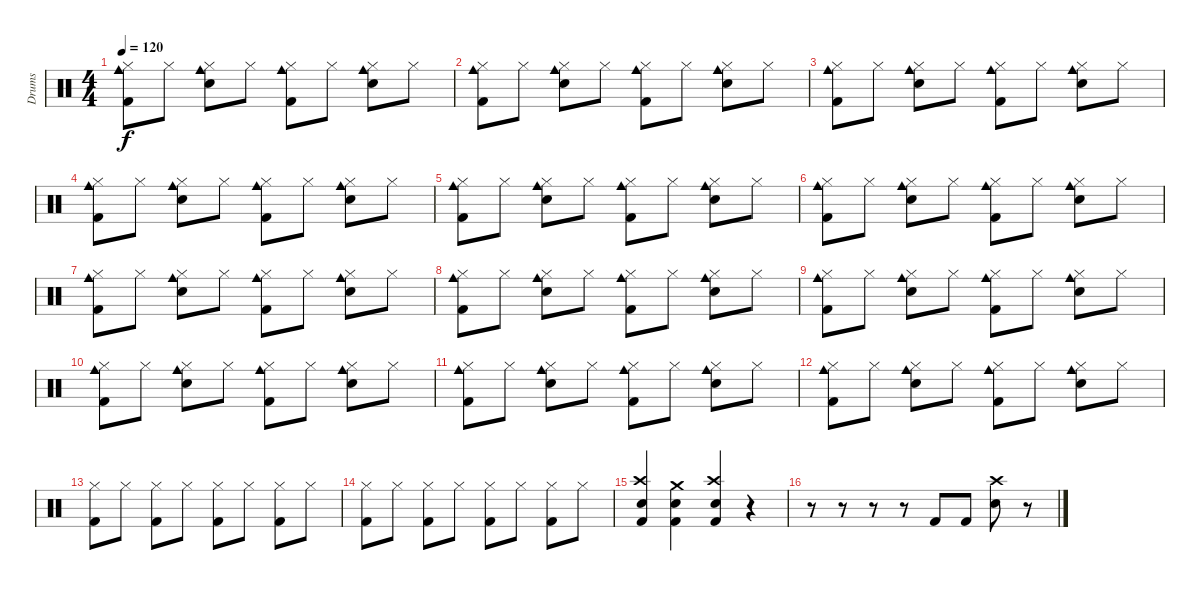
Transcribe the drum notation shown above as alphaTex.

\track ("Drums" "Drums") {instrument percussion}
\staff {score}
\articulation defaults
\ts (4 4)
\tempo 120
\clef neutral
\ks c
("Hi-Hat (closed)" "Kick (hit) 2" "Cowbell medium (hit)").8{dy f} "Hi-Hat (closed)".8 ("Hi-Hat (closed)" "Snare (hit) 2" "Cowbell medium (hit)").8 "Hi-Hat (closed)".8 ("Hi-Hat (closed)" "Kick (hit) 2" "Cowbell medium (hit)").8 "Hi-Hat (closed)".8 ("Hi-Hat (closed)" "Snare (hit) 2" "Cowbell medium (hit)").8 "Hi-Hat (closed)".8 |
("Hi-Hat (closed)" "Kick (hit) 2" "Cowbell medium (hit)").8 "Hi-Hat (closed)".8 ("Hi-Hat (closed)" "Snare (hit) 2" "Cowbell medium (hit)").8 "Hi-Hat (closed)".8 ("Hi-Hat (closed)" "Kick (hit) 2" "Cowbell medium (hit)").8 "Hi-Hat (closed)".8 ("Hi-Hat (closed)" "Snare (hit) 2" "Cowbell medium (hit)").8 "Hi-Hat (closed)".8 |
("Hi-Hat (closed)" "Kick (hit) 2" "Cowbell medium (hit)").8 "Hi-Hat (closed)".8 ("Hi-Hat (closed)" "Snare (hit) 2" "Cowbell medium (hit)").8 "Hi-Hat (closed)".8 ("Hi-Hat (closed)" "Kick (hit) 2" "Cowbell medium (hit)").8 "Hi-Hat (closed)".8 ("Hi-Hat (closed)" "Snare (hit) 2" "Cowbell medium (hit)").8 "Hi-Hat (closed)".8 |
("Hi-Hat (closed)" "Kick (hit) 2" "Cowbell medium (hit)").8 "Hi-Hat (closed)".8 ("Hi-Hat (closed)" "Snare (hit) 2" "Cowbell medium (hit)").8 "Hi-Hat (closed)".8 ("Hi-Hat (closed)" "Kick (hit) 2" "Cowbell medium (hit)").8 "Hi-Hat (closed)".8 ("Hi-Hat (closed)" "Snare (hit) 2" "Cowbell medium (hit)").8 "Hi-Hat (closed)".8 |
("Hi-Hat (closed)" "Kick (hit) 2" "Cowbell medium (hit)").8 "Hi-Hat (closed)".8 ("Hi-Hat (closed)" "Snare (hit) 2" "Cowbell medium (hit)").8 "Hi-Hat (closed)".8 ("Hi-Hat (closed)" "Kick (hit) 2" "Cowbell medium (hit)").8 "Hi-Hat (closed)".8 ("Hi-Hat (closed)" "Snare (hit) 2" "Cowbell medium (hit)").8 "Hi-Hat (closed)".8 |
("Hi-Hat (closed)" "Kick (hit) 2" "Cowbell medium (hit)").8 "Hi-Hat (closed)".8 ("Hi-Hat (closed)" "Snare (hit) 2" "Cowbell medium (hit)").8 "Hi-Hat (closed)".8 ("Hi-Hat (closed)" "Kick (hit) 2" "Cowbell medium (hit)").8 "Hi-Hat (closed)".8 ("Hi-Hat (closed)" "Snare (hit) 2" "Cowbell medium (hit)").8 "Hi-Hat (closed)".8 |
("Hi-Hat (closed)" "Kick (hit) 2" "Cowbell medium (hit)").8 "Hi-Hat (closed)".8 ("Hi-Hat (closed)" "Snare (hit) 2" "Cowbell medium (hit)").8 "Hi-Hat (closed)".8 ("Hi-Hat (closed)" "Kick (hit) 2" "Cowbell medium (hit)").8 "Hi-Hat (closed)".8 ("Hi-Hat (closed)" "Snare (hit) 2" "Cowbell medium (hit)").8 "Hi-Hat (closed)".8 |
("Hi-Hat (closed)" "Kick (hit) 2" "Cowbell medium (hit)").8 "Hi-Hat (closed)".8 ("Hi-Hat (closed)" "Snare (hit) 2" "Cowbell medium (hit)").8 "Hi-Hat (closed)".8 ("Hi-Hat (closed)" "Kick (hit) 2" "Cowbell medium (hit)").8 "Hi-Hat (closed)".8 ("Hi-Hat (closed)" "Snare (hit) 2" "Cowbell medium (hit)").8 "Hi-Hat (closed)".8 |
("Hi-Hat (closed)" "Kick (hit) 2" "Cowbell medium (hit)").8 "Hi-Hat (closed)".8 ("Hi-Hat (closed)" "Snare (hit) 2" "Cowbell medium (hit)").8 "Hi-Hat (closed)".8 ("Hi-Hat (closed)" "Kick (hit) 2" "Cowbell medium (hit)").8 "Hi-Hat (closed)".8 ("Hi-Hat (closed)" "Snare (hit) 2" "Cowbell medium (hit)").8 "Hi-Hat (closed)".8 |
("Hi-Hat (closed)" "Kick (hit) 2" "Cowbell medium (hit)").8 "Hi-Hat (closed)".8 ("Hi-Hat (closed)" "Snare (hit) 2" "Cowbell medium (hit)").8 "Hi-Hat (closed)".8 ("Hi-Hat (closed)" "Kick (hit) 2" "Cowbell medium (hit)").8 "Hi-Hat (closed)".8 ("Hi-Hat (closed)" "Snare (hit) 2" "Cowbell medium (hit)").8 "Hi-Hat (closed)".8 |
("Hi-Hat (closed)" "Kick (hit) 2" "Cowbell medium (hit)").8 "Hi-Hat (closed)".8 ("Hi-Hat (closed)" "Snare (hit) 2" "Cowbell medium (hit)").8 "Hi-Hat (closed)".8 ("Hi-Hat (closed)" "Kick (hit) 2" "Cowbell medium (hit)").8 "Hi-Hat (closed)".8 ("Hi-Hat (closed)" "Snare (hit) 2" "Cowbell medium (hit)").8 "Hi-Hat (closed)".8 |
("Hi-Hat (closed)" "Kick (hit) 2" "Cowbell medium (hit)").8 "Hi-Hat (closed)".8 ("Hi-Hat (closed)" "Snare (hit) 2" "Cowbell medium (hit)").8 "Hi-Hat (closed)".8 ("Hi-Hat (closed)" "Kick (hit) 2" "Cowbell medium (hit)").8 "Hi-Hat (closed)".8 ("Hi-Hat (closed)" "Snare (hit) 2" "Cowbell medium (hit)").8 "Hi-Hat (closed)".8 |
("Hi-Hat (closed)" "Kick (hit) 2").8 "Hi-Hat (closed)".8 ("Hi-Hat (closed)" "Kick (hit) 2").8 "Hi-Hat (closed)".8 ("Hi-Hat (closed)" "Kick (hit) 2").8 "Hi-Hat (closed)".8 ("Hi-Hat (closed)" "Kick (hit) 2").8 "Hi-Hat (closed)".8 |
("Hi-Hat (closed)" "Kick (hit) 2").8 "Hi-Hat (closed)".8 ("Hi-Hat (closed)" "Kick (hit) 2").8 "Hi-Hat (closed)".8 ("Hi-Hat (closed)" "Kick (hit) 2").8 "Hi-Hat (closed)".8 ("Hi-Hat (closed)" "Kick (hit) 2").8 "Hi-Hat (closed)".8 |
("Crash high (hit)" "Electric Snare (hit)" "Kick (hit) 2").4 ("Crash medium (hit)" "Electric Snare (hit)" "Kick (hit) 2").4 ("Crash high (hit)" "Electric Snare (hit)" "Kick (hit) 2").4 r.4 |
r.8 r.8 r.8 r.8 "Kick (hit) 2".8 "Kick (hit) 2".8 ("Crash high (hit)" "Snare (hit) 2").8 r.8
